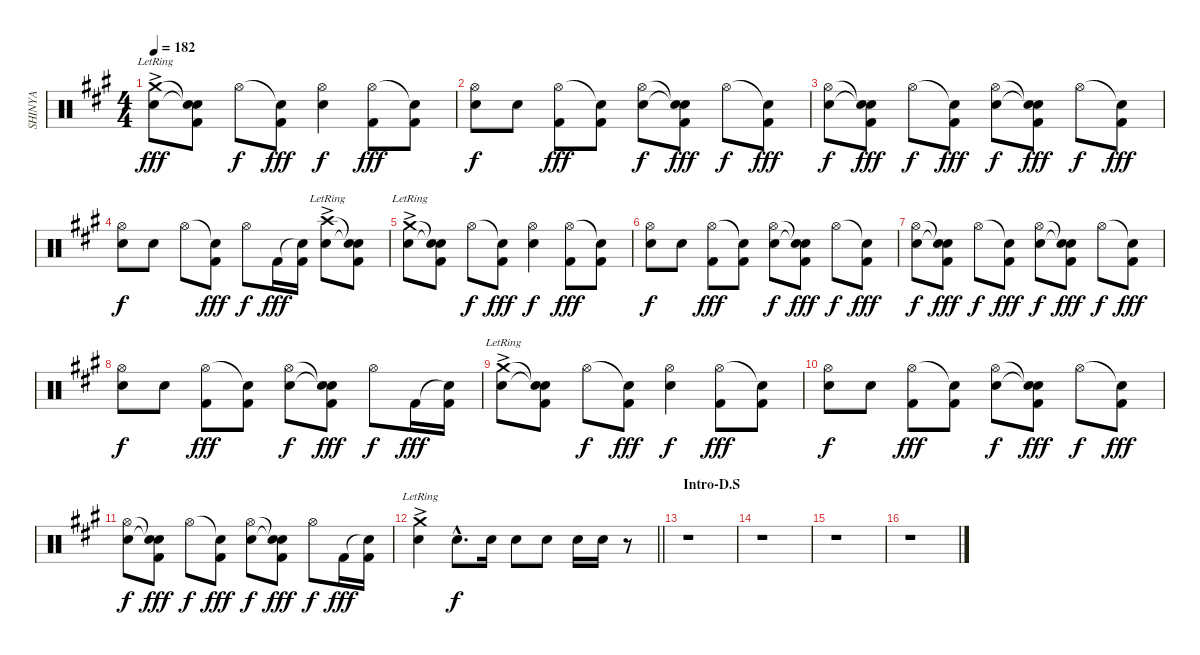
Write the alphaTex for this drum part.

\track ("SHINYA" "SHINYA") {instrument percussion}
\staff {score}
\articulation defaults
\ts (4 4)
\tempo 182
\clef neutral
\ks a
("Crash medium (hit)"{ac lr} "Electric Snare (hit)").8{dy fff} ("Snare (hit)"{t} "Snare (hit)"{t} "Kick (hit) 2").8 "Hi-Hat (open)".8{dy f} ("Snare (hit)"{t} "Kick (hit) 2").8{dy fff} ("Hi-Hat (open)" "Electric Snare (hit)").4{dy f} ("Hi-Hat (open)" "Kick (hit) 2").8{dy fff} ("Snare (hit)"{t} "Kick (hit) 2").8 |
("Hi-Hat (open)" "Electric Snare (hit)").8{dy f} "Electric Snare (hit)".8 ("Hi-Hat (open)" "Kick (hit) 2").8{dy fff} ("Snare (hit)"{t} "Kick (hit) 2").8 ("Hi-Hat (open)" "Electric Snare (hit)").8{dy f} ("Snare (hit)"{t} "Snare (hit)"{t} "Kick (hit) 2").8{dy fff} "Hi-Hat (open)".8{dy f} ("Snare (hit)"{t} "Kick (hit) 2").8{dy fff} |
("Hi-Hat (open)" "Electric Snare (hit)").8{dy f} ("Snare (hit)"{t} "Snare (hit)"{t} "Kick (hit) 2").8{dy fff} "Hi-Hat (open)".8{dy f} ("Snare (hit)"{t} "Kick (hit) 2").8{dy fff} ("Hi-Hat (open)" "Electric Snare (hit)").8{dy f} ("Snare (hit)"{t} "Snare (hit)"{t} "Kick (hit) 2").8{dy fff} "Hi-Hat (open)".8{dy f} ("Snare (hit)"{t} "Kick (hit) 2").8{dy fff} |
("Hi-Hat (open)" "Electric Snare (hit)").8{dy f} "Electric Snare (hit)".8 "Hi-Hat (open)".8 ("Snare (hit)"{t} "Kick (hit) 2").8{dy fff} "Hi-Hat (open)".8{dy f} "Kick (hit) 2".16{dy fff} ("Snare (hit)"{t} "Kick (hit) 2").16 ("Crash high (hit)"{ac lr} "Electric Snare (hit)").8 ("Snare (hit)"{t} "Snare (hit)"{t} "Kick (hit) 2").8 |
("Crash medium (hit)"{ac lr} "Electric Snare (hit)").8 ("Snare (hit)"{t} "Snare (hit)"{t} "Kick (hit) 2").8 "Hi-Hat (open)".8{dy f} ("Snare (hit)"{t} "Kick (hit) 2").8{dy fff} ("Hi-Hat (open)" "Electric Snare (hit)").4{dy f} ("Hi-Hat (open)" "Kick (hit) 2").8{dy fff} ("Snare (hit)"{t} "Kick (hit) 2").8 |
("Hi-Hat (open)" "Electric Snare (hit)").8{dy f} "Electric Snare (hit)".8 ("Hi-Hat (open)" "Kick (hit) 2").8{dy fff} ("Snare (hit)"{t} "Kick (hit) 2").8 ("Hi-Hat (open)" "Electric Snare (hit)").8{dy f} ("Snare (hit)"{t} "Snare (hit)"{t} "Kick (hit) 2").8{dy fff} "Hi-Hat (open)".8{dy f} ("Snare (hit)"{t} "Kick (hit) 2").8{dy fff} |
("Hi-Hat (open)" "Electric Snare (hit)").8{dy f} ("Snare (hit)"{t} "Snare (hit)"{t} "Kick (hit) 2").8{dy fff} "Hi-Hat (open)".8{dy f} ("Snare (hit)"{t} "Kick (hit) 2").8{dy fff} ("Hi-Hat (open)" "Electric Snare (hit)").8{dy f} ("Snare (hit)"{t} "Snare (hit)"{t} "Kick (hit) 2").8{dy fff} "Hi-Hat (open)".8{dy f} ("Snare (hit)"{t} "Kick (hit) 2").8{dy fff} |
("Hi-Hat (open)" "Electric Snare (hit)").8{dy f} "Electric Snare (hit)".8 ("Hi-Hat (open)" "Kick (hit) 2").8{dy fff} ("Snare (hit)"{t} "Kick (hit) 2").8 ("Hi-Hat (open)" "Electric Snare (hit)").8{dy f} ("Snare (hit)"{t} "Snare (hit)"{t} "Kick (hit) 2").8{dy fff} "Hi-Hat (open)".8{dy f} "Kick (hit) 2".16{dy fff} ("Snare (hit)"{t} "Kick (hit) 2").16 |
("Crash medium (hit)"{ac lr} "Electric Snare (hit)").8 ("Snare (hit)"{t} "Snare (hit)"{t} "Kick (hit) 2").8 "Hi-Hat (open)".8{dy f} ("Snare (hit)"{t} "Kick (hit) 2").8{dy fff} ("Hi-Hat (open)" "Electric Snare (hit)").4{dy f} ("Hi-Hat (open)" "Kick (hit) 2").8{dy fff} ("Snare (hit)"{t} "Kick (hit) 2").8 |
("Hi-Hat (open)" "Electric Snare (hit)").8{dy f} "Electric Snare (hit)".8 ("Hi-Hat (open)" "Kick (hit) 2").8{dy fff} ("Snare (hit)"{t} "Kick (hit) 2").8 ("Hi-Hat (open)" "Electric Snare (hit)").8{dy f} ("Snare (hit)"{t} "Snare (hit)"{t} "Kick (hit) 2").8{dy fff} "Hi-Hat (open)".8{dy f} ("Snare (hit)"{t} "Kick (hit) 2").8{dy fff} |
("Hi-Hat (open)" "Electric Snare (hit)").8{dy f} ("Snare (hit)"{t} "Snare (hit)"{t} "Kick (hit) 2").8{dy fff} "Hi-Hat (open)".8{dy f} ("Snare (hit)"{t} "Kick (hit) 2").8{dy fff} ("Hi-Hat (open)" "Electric Snare (hit)").8{dy f} ("Snare (hit)"{t} "Snare (hit)"{t} "Kick (hit) 2").8{dy fff} "Hi-Hat (open)".8{dy f} "Kick (hit) 2".16{dy fff} ("Snare (hit)"{t} "Kick (hit) 2").16 |
\barLineRight lightlight
("Crash medium (hit)"{ac lr} "Electric Snare (hit)").4 "Electric Snare (hit)"{hac}.8{d dy f} "Electric Snare (hit)".16 "Electric Snare (hit)".8 "Electric Snare (hit)".8 "Electric Snare (hit)".16 "Electric Snare (hit)".16 r.8 |
\section ("" "Intro-D.S")
r.1 |
r.1 |
r.1 |
r.1
